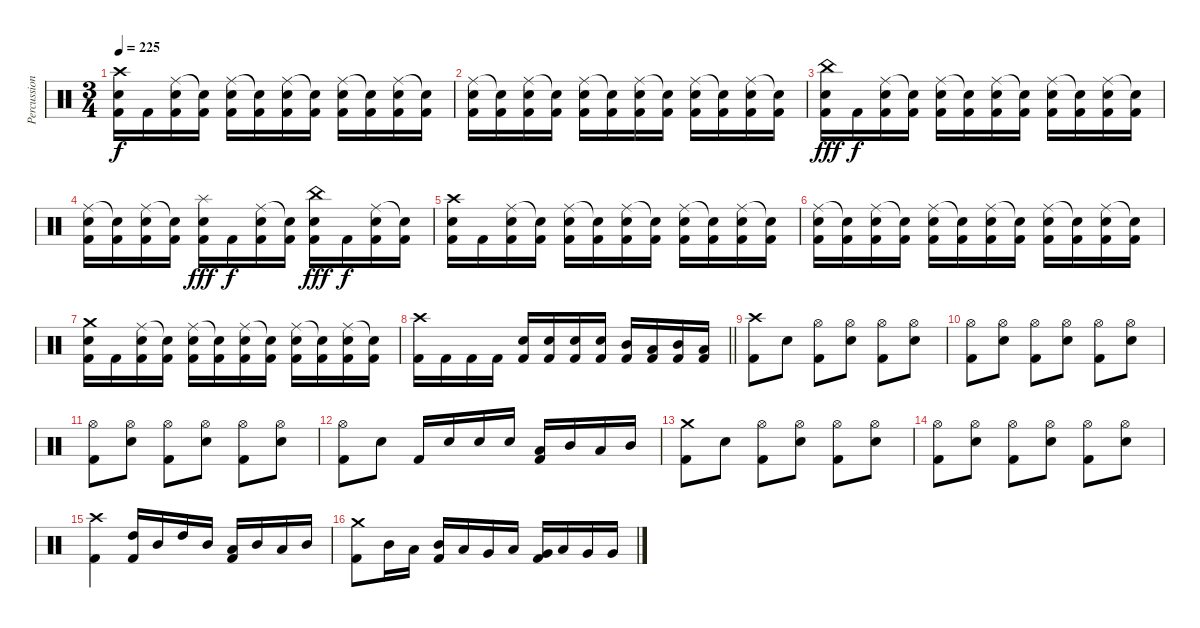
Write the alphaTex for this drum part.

\track ("Percussion" "Percussion") {instrument percussion}
\staff {score}
\articulation defaults
\ts (3 4)
\tempo 225
\clef neutral
\ks c
("Crash high (hit)" "Snare (hit) 2" "Kick (hit) 2").16{dy f} "Kick (hit) 2".16 ("Ride (middle)" "Snare (hit) 2" "Kick (hit) 2").16 ("Snare (hit)"{t} "Kick (hit) 2").16 ("Ride (middle)" "Snare (hit) 2" "Kick (hit) 2").16 ("Snare (hit)"{t} "Kick (hit) 2").16 ("Ride (middle)" "Snare (hit) 2" "Kick (hit) 2").16 ("Snare (hit)"{t} "Kick (hit) 2").16 ("Ride (middle)" "Snare (hit) 2" "Kick (hit) 2").16 ("Snare (hit)"{t} "Kick (hit) 2").16 ("Ride (middle)" "Snare (hit) 2" "Kick (hit) 2").16 ("Snare (hit)"{t} "Kick (hit) 2").16 |
("Ride (middle)" "Snare (hit) 2" "Kick (hit) 2").16 ("Snare (hit)"{t} "Kick (hit) 2").16 ("Ride (middle)" "Snare (hit) 2" "Kick (hit) 2").16 ("Snare (hit)"{t} "Kick (hit) 2").16 ("Ride (middle)" "Snare (hit) 2" "Kick (hit) 2").16 ("Snare (hit)"{t} "Kick (hit) 2").16 ("Ride (middle)" "Snare (hit) 2" "Kick (hit) 2").16 ("Snare (hit)"{t} "Kick (hit) 2").16 ("Ride (middle)" "Snare (hit) 2" "Kick (hit) 2").16 ("Snare (hit)"{t} "Kick (hit) 2").16 ("Ride (middle)" "Snare (hit) 2" "Kick (hit) 2").16 ("Snare (hit)"{t} "Kick (hit) 2").16 |
("China (hit)" "Snare (hit) 2" "Kick (hit) 2").16{dy fff} "Kick (hit) 2".16{dy f} ("Ride (middle)" "Snare (hit) 2" "Kick (hit) 2").16 ("Snare (hit)"{t} "Kick (hit) 2").16 ("Ride (middle)" "Snare (hit) 2" "Kick (hit) 2").16 ("Snare (hit)"{t} "Kick (hit) 2").16 ("Ride (middle)" "Snare (hit) 2" "Kick (hit) 2").16 ("Snare (hit)"{t} "Kick (hit) 2").16 ("Ride (middle)" "Snare (hit) 2" "Kick (hit) 2").16 ("Snare (hit)"{t} "Kick (hit) 2").16 ("Ride (middle)" "Snare (hit) 2" "Kick (hit) 2").16 ("Snare (hit)"{t} "Kick (hit) 2").16 |
("Ride (middle)" "Snare (hit) 2" "Kick (hit) 2").16 ("Snare (hit)"{t} "Kick (hit) 2").16 ("Ride (middle)" "Snare (hit) 2" "Kick (hit) 2").16 ("Snare (hit)"{t} "Kick (hit) 2").16 ("Splash (hit)" "Snare (hit) 2" "Kick (hit) 2").16{dy fff} "Kick (hit) 2".16{dy f} ("Ride (middle)" "Snare (hit) 2" "Kick (hit) 2").16 ("Snare (hit)"{t} "Kick (hit) 2").16 ("China (hit)" "Snare (hit) 2" "Kick (hit) 2").16{dy fff} "Kick (hit) 2".16{dy f} ("Ride (middle)" "Snare (hit) 2" "Kick (hit) 2").16 ("Snare (hit)"{t} "Kick (hit) 2").16 |
("Crash high (hit)" "Snare (hit) 2" "Kick (hit) 2").16 "Kick (hit) 2".16 ("Ride (middle)" "Snare (hit) 2" "Kick (hit) 2").16 ("Snare (hit)"{t} "Kick (hit) 2").16 ("Ride (middle)" "Snare (hit) 2" "Kick (hit) 2").16 ("Snare (hit)"{t} "Kick (hit) 2").16 ("Ride (middle)" "Snare (hit) 2" "Kick (hit) 2").16 ("Snare (hit)"{t} "Kick (hit) 2").16 ("Ride (middle)" "Snare (hit) 2" "Kick (hit) 2").16 ("Snare (hit)"{t} "Kick (hit) 2").16 ("Ride (middle)" "Snare (hit) 2" "Kick (hit) 2").16 ("Snare (hit)"{t} "Kick (hit) 2").16 |
("Ride (middle)" "Snare (hit) 2" "Kick (hit) 2").16 ("Snare (hit)"{t} "Kick (hit) 2").16 ("Ride (middle)" "Snare (hit) 2" "Kick (hit) 2").16 ("Snare (hit)"{t} "Kick (hit) 2").16 ("Ride (middle)" "Snare (hit) 2" "Kick (hit) 2").16 ("Snare (hit)"{t} "Kick (hit) 2").16 ("Ride (middle)" "Snare (hit) 2" "Kick (hit) 2").16 ("Snare (hit)"{t} "Kick (hit) 2").16 ("Ride (middle)" "Snare (hit) 2" "Kick (hit) 2").16 ("Snare (hit)"{t} "Kick (hit) 2").16 ("Ride (middle)" "Snare (hit) 2" "Kick (hit) 2").16 ("Snare (hit)"{t} "Kick (hit) 2").16 |
("Crash medium (hit)" "Snare (hit) 2" "Kick (hit) 2").16 "Kick (hit) 2".16 ("Ride (middle)" "Snare (hit) 2" "Kick (hit) 2").16 ("Snare (hit)"{t} "Kick (hit) 2").16 ("Ride (middle)" "Snare (hit) 2" "Kick (hit) 2").16 ("Snare (hit)"{t} "Kick (hit) 2").16 ("Ride (middle)" "Snare (hit) 2" "Kick (hit) 2").16 ("Snare (hit)"{t} "Kick (hit) 2").16 ("Ride (middle)" "Snare (hit) 2" "Kick (hit) 2").16 ("Snare (hit)"{t} "Kick (hit) 2").16 ("Ride (middle)" "Snare (hit) 2" "Kick (hit) 2").16 ("Snare (hit)"{t} "Kick (hit) 2").16 |
\barLineRight lightlight
("Crash high (hit)" "Kick (hit) 2").16 "Kick (hit) 2".16 "Kick (hit) 2".16 "Kick (hit) 2".16 ("Snare (hit) 2" "Kick (hit) 2").16 ("Snare (hit) 2" "Kick (hit) 2").16 ("Snare (hit) 2" "Kick (hit) 2").16 ("Snare (hit) 2" "Kick (hit) 2").16 ("Mid Tom (hit)" "Kick (hit) 2").16 ("Low Tom (hit)" "Kick (hit) 2").16 ("Mid Tom (hit)" "Kick (hit) 2").16 ("Low Tom (hit)" "Kick (hit) 2").16 |
("Crash high (hit)" "Kick (hit) 2").8 "Snare (hit) 2".8 ("Hi-Hat (open)" "Kick (hit) 2").8 ("Hi-Hat (open)" "Snare (hit) 2").8 ("Hi-Hat (open)" "Kick (hit) 2").8 ("Hi-Hat (open)" "Snare (hit) 2").8 |
("Hi-Hat (open)" "Kick (hit) 2").8 ("Hi-Hat (open)" "Snare (hit) 2").8 ("Hi-Hat (open)" "Kick (hit) 2").8 ("Hi-Hat (open)" "Snare (hit) 2").8 ("Hi-Hat (open)" "Kick (hit) 2").8 ("Hi-Hat (open)" "Snare (hit) 2").8 |
("Hi-Hat (open)" "Kick (hit) 2").8 ("Hi-Hat (open)" "Snare (hit) 2").8 ("Hi-Hat (open)" "Kick (hit) 2").8 ("Hi-Hat (open)" "Snare (hit) 2").8 ("Hi-Hat (open)" "Kick (hit) 2").8 ("Hi-Hat (open)" "Snare (hit) 2").8 |
("Hi-Hat (open)" "Kick (hit) 2").8 "Snare (hit) 2".8 "Kick (hit) 2".16 "Snare (hit) 2".16 "Snare (hit) 2".16 "Snare (hit) 2".16 ("Low Tom (hit)" "Kick (hit) 2").16 "Mid Tom (hit)".16 "Low Tom (hit)".16 "Mid Tom (hit)".16 |
("Crash medium (hit)" "Kick (hit) 2").8 "Snare (hit) 2".8 ("Hi-Hat (open)" "Kick (hit) 2").8 ("Hi-Hat (open)" "Snare (hit) 2").8 ("Hi-Hat (open)" "Kick (hit) 2").8 ("Hi-Hat (open)" "Snare (hit) 2").8 |
("Hi-Hat (open)" "Kick (hit) 2").8 ("Hi-Hat (open)" "Snare (hit) 2").8 ("Hi-Hat (open)" "Kick (hit) 2").8 ("Hi-Hat (open)" "Snare (hit) 2").8 ("Hi-Hat (open)" "Kick (hit) 2").8 ("Hi-Hat (open)" "Snare (hit) 2").8 |
("Crash high (hit)" "Kick (hit) 2").4 ("High Tom (hit)" "Kick (hit) 2").16 "Mid Tom (hit)".16 "High Tom (hit)".16 "Mid Tom (hit)".16 ("Low Tom (hit)" "Kick (hit) 2").16 "Mid Tom (hit)".16 "Low Tom (hit)".16 "Mid Tom (hit)".16 |
("Crash medium (hit)" "Kick (hit) 2").8 "Mid Tom (hit)".16 "Low Tom (hit)".16 ("Mid Tom (hit)" "Kick (hit) 2").16 "Low Tom (hit)".16 "Very Low Tom (hit)".16 "Low Tom (hit)".16 ("Very Low Tom (hit)" "Kick (hit) 2").16 "Low Tom (hit)".16 "Very Low Tom (hit)".16 "Very Low Tom (hit)".16
